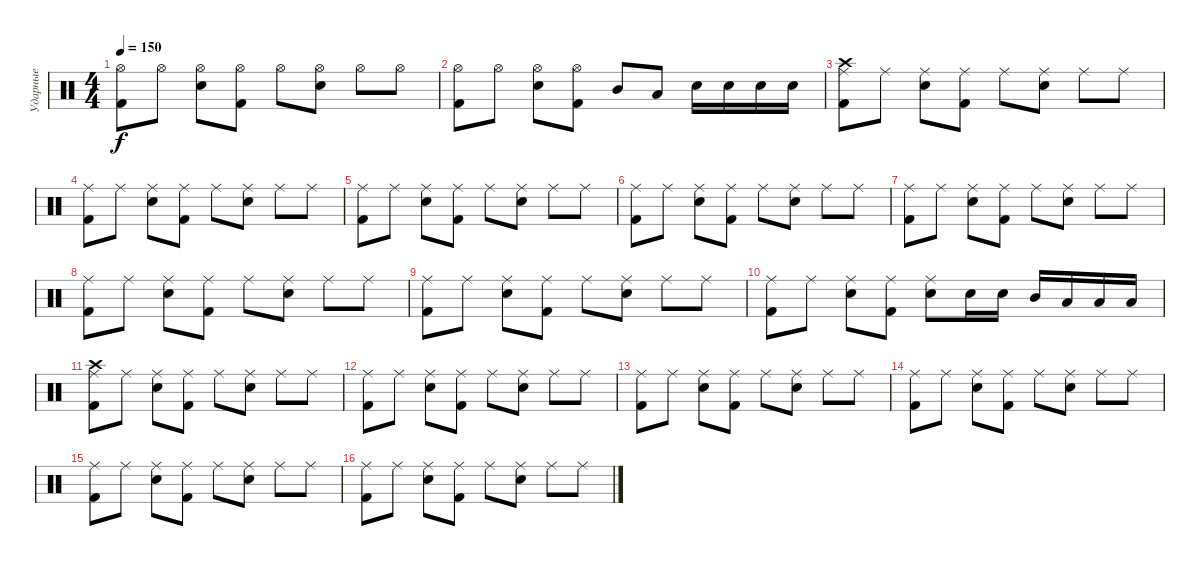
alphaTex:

\track ("Ударные" "Ударные") {instrument percussion}
\staff {score}
\articulation defaults
\ts (4 4)
\tempo 150
\clef neutral
\ks c
("Hi-Hat (open)" "Kick (hit) 2").8{dy f} "Hi-Hat (open)".8 ("Hi-Hat (open)" "Snare (hit) 2").8 ("Hi-Hat (open)" "Kick (hit) 2").8 "Hi-Hat (open)".8 ("Hi-Hat (open)" "Snare (hit) 2").8 "Hi-Hat (open)".8 "Hi-Hat (open)".8 |
("Hi-Hat (open)" "Kick (hit) 2").8 "Hi-Hat (open)".8 ("Hi-Hat (open)" "Snare (hit) 2").8 ("Hi-Hat (open)" "Kick (hit) 2").8 "Mid Tom (hit)".8 "Low Tom (hit)".8 "Snare (hit) 2".16 "Snare (hit) 2".16 "Snare (hit) 2".16 "Snare (hit) 2".16 |
("Ride (middle)" "Crash high (hit)" "Kick (hit) 2").8 "Ride (middle)".8 ("Ride (middle)" "Snare (hit) 2").8 ("Ride (middle)" "Kick (hit) 2").8 "Ride (middle)".8 ("Ride (middle)" "Snare (hit) 2").8 "Ride (middle)".8 "Ride (middle)".8 |
("Ride (middle)" "Kick (hit) 2").8 "Ride (middle)".8 ("Ride (middle)" "Snare (hit) 2").8 ("Ride (middle)" "Kick (hit) 2").8 "Ride (middle)".8 ("Ride (middle)" "Snare (hit) 2").8 "Ride (middle)".8 "Ride (middle)".8 |
("Ride (middle)" "Kick (hit) 2").8 "Ride (middle)".8 ("Ride (middle)" "Snare (hit) 2").8 ("Ride (middle)" "Kick (hit) 2").8 "Ride (middle)".8 ("Ride (middle)" "Snare (hit) 2").8 "Ride (middle)".8 "Ride (middle)".8 |
("Ride (middle)" "Kick (hit) 2").8 "Ride (middle)".8 ("Ride (middle)" "Snare (hit) 2").8 ("Ride (middle)" "Kick (hit) 2").8 "Ride (middle)".8 ("Ride (middle)" "Snare (hit) 2").8 "Ride (middle)".8 "Ride (middle)".8 |
("Ride (middle)" "Kick (hit) 2").8 "Ride (middle)".8 ("Ride (middle)" "Snare (hit) 2").8 ("Ride (middle)" "Kick (hit) 2").8 "Ride (middle)".8 ("Ride (middle)" "Snare (hit) 2").8 "Ride (middle)".8 "Ride (middle)".8 |
("Ride (middle)" "Kick (hit) 2").8 "Ride (middle)".8 ("Ride (middle)" "Snare (hit) 2").8 ("Ride (middle)" "Kick (hit) 2").8 "Ride (middle)".8 ("Ride (middle)" "Snare (hit) 2").8 "Ride (middle)".8 "Ride (middle)".8 |
("Ride (middle)" "Kick (hit) 2").8 "Ride (middle)".8 ("Ride (middle)" "Snare (hit) 2").8 ("Ride (middle)" "Kick (hit) 2").8 "Ride (middle)".8 ("Ride (middle)" "Snare (hit) 2").8 "Ride (middle)".8 "Ride (middle)".8 |
("Ride (middle)" "Kick (hit) 2").8 "Ride (middle)".8 ("Ride (middle)" "Snare (hit) 2").8 ("Ride (middle)" "Kick (hit) 2").8 ("Ride (middle)" "Snare (hit) 2").8 "Snare (hit) 2".16 "Snare (hit) 2".16 "Mid Tom (hit)".16 "Low Tom (hit)".16 "Low Floor Tom (hit)".16 "Low Floor Tom (hit)".16 |
("Ride (middle)" "Crash high (hit)" "Kick (hit) 2").8 "Ride (middle)".8 ("Ride (middle)" "Snare (hit) 2").8 ("Ride (middle)" "Kick (hit) 2").8 "Ride (middle)".8 ("Ride (middle)" "Snare (hit) 2").8 "Ride (middle)".8 "Ride (middle)".8 |
("Ride (middle)" "Kick (hit) 2").8 "Ride (middle)".8 ("Ride (middle)" "Snare (hit) 2").8 ("Ride (middle)" "Kick (hit) 2").8 "Ride (middle)".8 ("Ride (middle)" "Snare (hit) 2").8 "Ride (middle)".8 "Ride (middle)".8 |
("Ride (middle)" "Kick (hit) 2").8 "Ride (middle)".8 ("Ride (middle)" "Snare (hit) 2").8 ("Ride (middle)" "Kick (hit) 2").8 "Ride (middle)".8 ("Ride (middle)" "Snare (hit) 2").8 "Ride (middle)".8 "Ride (middle)".8 |
("Ride (middle)" "Kick (hit) 2").8 "Ride (middle)".8 ("Ride (middle)" "Snare (hit) 2").8 ("Ride (middle)" "Kick (hit) 2").8 "Ride (middle)".8 ("Ride (middle)" "Snare (hit) 2").8 "Ride (middle)".8 "Ride (middle)".8 |
("Ride (middle)" "Kick (hit) 2").8 "Ride (middle)".8 ("Ride (middle)" "Snare (hit) 2").8 ("Ride (middle)" "Kick (hit) 2").8 "Ride (middle)".8 ("Ride (middle)" "Snare (hit) 2").8 "Ride (middle)".8 "Ride (middle)".8 |
("Ride (middle)" "Kick (hit) 2").8 "Ride (middle)".8 ("Ride (middle)" "Snare (hit) 2").8 ("Ride (middle)" "Kick (hit) 2").8 "Ride (middle)".8 ("Ride (middle)" "Snare (hit) 2").8 "Ride (middle)".8 "Ride (middle)".8
